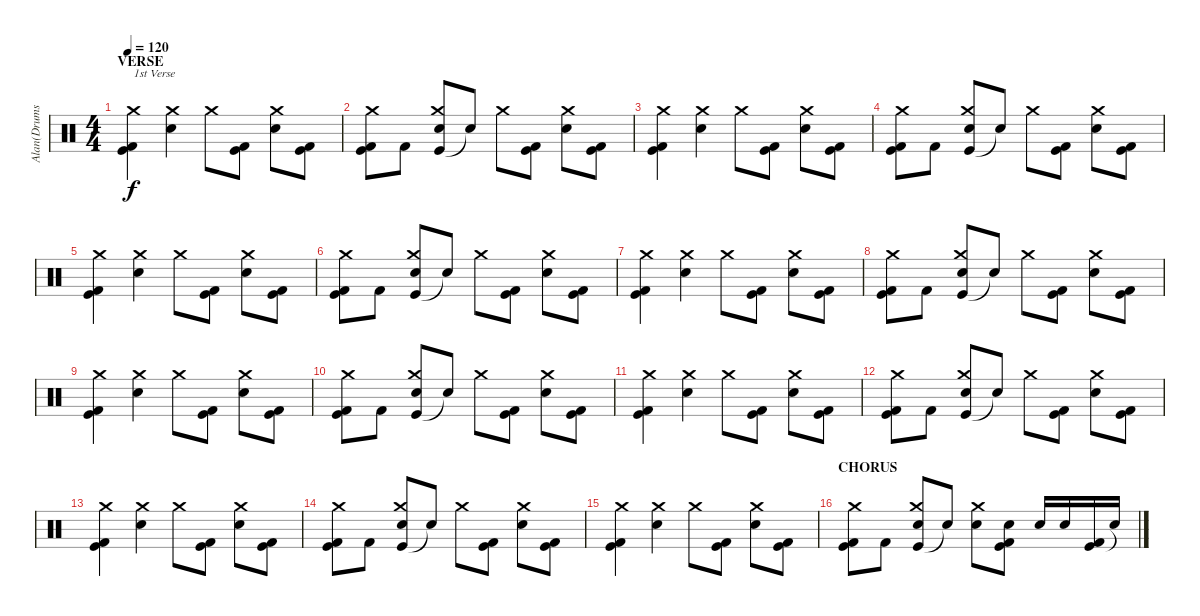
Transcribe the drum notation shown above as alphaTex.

\track ("Alan(Drums)" "Alan(Drums") {instrument percussion}
\staff {score}
\articulation defaults
\ts (4 4)
\section ("" "VERSE")
\tempo 120
\clef neutral
\ks c
("Kick (hit) 2" "Kick (hit)" "Crash medium (hit)").4{txt "1st Verse" dy f} ("Electric Snare (hit)" "Crash medium (hit)").4 "Crash medium (hit)".8 ("Kick (hit)" "Kick (hit) 2").8 ("Electric Snare (hit)" "Crash medium (hit)").8 ("Kick (hit)" "Kick (hit) 2").8 |
("Kick (hit)" "Kick (hit) 2" "Crash medium (hit)").8 "Kick (hit) 2".8 ("Kick (hit)" "Electric Snare (hit)" "Crash medium (hit)").8 "Snare (hit)"{t}.8 "Crash medium (hit)".8 ("Kick (hit)" "Kick (hit) 2").8 ("Electric Snare (hit)" "Crash medium (hit)").8 ("Kick (hit)" "Kick (hit) 2").8 |
("Kick (hit) 2" "Kick (hit)" "Crash medium (hit)").4 ("Electric Snare (hit)" "Crash medium (hit)").4 "Crash medium (hit)".8 ("Kick (hit)" "Kick (hit) 2").8 ("Electric Snare (hit)" "Crash medium (hit)").8 ("Kick (hit)" "Kick (hit) 2").8 |
("Kick (hit)" "Kick (hit) 2" "Crash medium (hit)").8 "Kick (hit) 2".8 ("Kick (hit)" "Electric Snare (hit)" "Crash medium (hit)").8 "Snare (hit)"{t}.8 "Crash medium (hit)".8 ("Kick (hit)" "Kick (hit) 2").8 ("Electric Snare (hit)" "Crash medium (hit)").8 ("Kick (hit)" "Kick (hit) 2").8 |
("Kick (hit) 2" "Kick (hit)" "Crash medium (hit)").4 ("Electric Snare (hit)" "Crash medium (hit)").4 "Crash medium (hit)".8 ("Kick (hit)" "Kick (hit) 2").8 ("Electric Snare (hit)" "Crash medium (hit)").8 ("Kick (hit)" "Kick (hit) 2").8 |
("Kick (hit)" "Kick (hit) 2" "Crash medium (hit)").8 "Kick (hit) 2".8 ("Kick (hit)" "Electric Snare (hit)" "Crash medium (hit)").8 "Snare (hit)"{t}.8 "Crash medium (hit)".8 ("Kick (hit)" "Kick (hit) 2").8 ("Electric Snare (hit)" "Crash medium (hit)").8 ("Kick (hit)" "Kick (hit) 2").8 |
("Kick (hit) 2" "Kick (hit)" "Crash medium (hit)").4 ("Electric Snare (hit)" "Crash medium (hit)").4 "Crash medium (hit)".8 ("Kick (hit)" "Kick (hit) 2").8 ("Electric Snare (hit)" "Crash medium (hit)").8 ("Kick (hit)" "Kick (hit) 2").8 |
("Kick (hit)" "Kick (hit) 2" "Crash medium (hit)").8 "Kick (hit) 2".8 ("Kick (hit)" "Electric Snare (hit)" "Crash medium (hit)").8 "Snare (hit)"{t}.8 "Crash medium (hit)".8 ("Kick (hit)" "Kick (hit) 2").8 ("Electric Snare (hit)" "Crash medium (hit)").8 ("Kick (hit)" "Kick (hit) 2").8 |
("Kick (hit) 2" "Kick (hit)" "Crash medium (hit)").4 ("Electric Snare (hit)" "Crash medium (hit)").4 "Crash medium (hit)".8 ("Kick (hit)" "Kick (hit) 2").8 ("Electric Snare (hit)" "Crash medium (hit)").8 ("Kick (hit)" "Kick (hit) 2").8 |
("Kick (hit)" "Kick (hit) 2" "Crash medium (hit)").8 "Kick (hit) 2".8 ("Kick (hit)" "Electric Snare (hit)" "Crash medium (hit)").8 "Snare (hit)"{t}.8 "Crash medium (hit)".8 ("Kick (hit)" "Kick (hit) 2").8 ("Electric Snare (hit)" "Crash medium (hit)").8 ("Kick (hit)" "Kick (hit) 2").8 |
("Kick (hit) 2" "Kick (hit)" "Crash medium (hit)").4 ("Electric Snare (hit)" "Crash medium (hit)").4 "Crash medium (hit)".8 ("Kick (hit)" "Kick (hit) 2").8 ("Electric Snare (hit)" "Crash medium (hit)").8 ("Kick (hit)" "Kick (hit) 2").8 |
("Kick (hit)" "Kick (hit) 2" "Crash medium (hit)").8 "Kick (hit) 2".8 ("Kick (hit)" "Electric Snare (hit)" "Crash medium (hit)").8 "Snare (hit)"{t}.8 "Crash medium (hit)".8 ("Kick (hit)" "Kick (hit) 2").8 ("Electric Snare (hit)" "Crash medium (hit)").8 ("Kick (hit)" "Kick (hit) 2").8 |
("Kick (hit) 2" "Kick (hit)" "Crash medium (hit)").4 ("Electric Snare (hit)" "Crash medium (hit)").4 "Crash medium (hit)".8 ("Kick (hit)" "Kick (hit) 2").8 ("Electric Snare (hit)" "Crash medium (hit)").8 ("Kick (hit)" "Kick (hit) 2").8 |
("Kick (hit)" "Kick (hit) 2" "Crash medium (hit)").8 "Kick (hit) 2".8 ("Kick (hit)" "Electric Snare (hit)" "Crash medium (hit)").8 "Snare (hit)"{t}.8 "Crash medium (hit)".8 ("Kick (hit)" "Kick (hit) 2").8 ("Electric Snare (hit)" "Crash medium (hit)").8 ("Kick (hit)" "Kick (hit) 2").8 |
("Kick (hit) 2" "Kick (hit)" "Crash medium (hit)").4 ("Electric Snare (hit)" "Crash medium (hit)").4 "Crash medium (hit)".8 ("Kick (hit)" "Kick (hit) 2").8 ("Electric Snare (hit)" "Crash medium (hit)").8 ("Kick (hit)" "Kick (hit) 2").8 |
\section ("" "CHORUS")
("Kick (hit)" "Kick (hit) 2" "Crash medium (hit)").8 "Kick (hit) 2".8 ("Kick (hit)" "Electric Snare (hit)" "Crash medium (hit)").8 "Snare (hit)"{t}.8 ("Electric Snare (hit)" "Crash medium (hit)").8 ("Kick (hit)" "Kick (hit) 2" "Electric Snare (hit)").8 "Electric Snare (hit)".16 "Electric Snare (hit)".16 ("Kick (hit)" "Kick (hit) 2").16 "Snare (hit)"{t}.16
